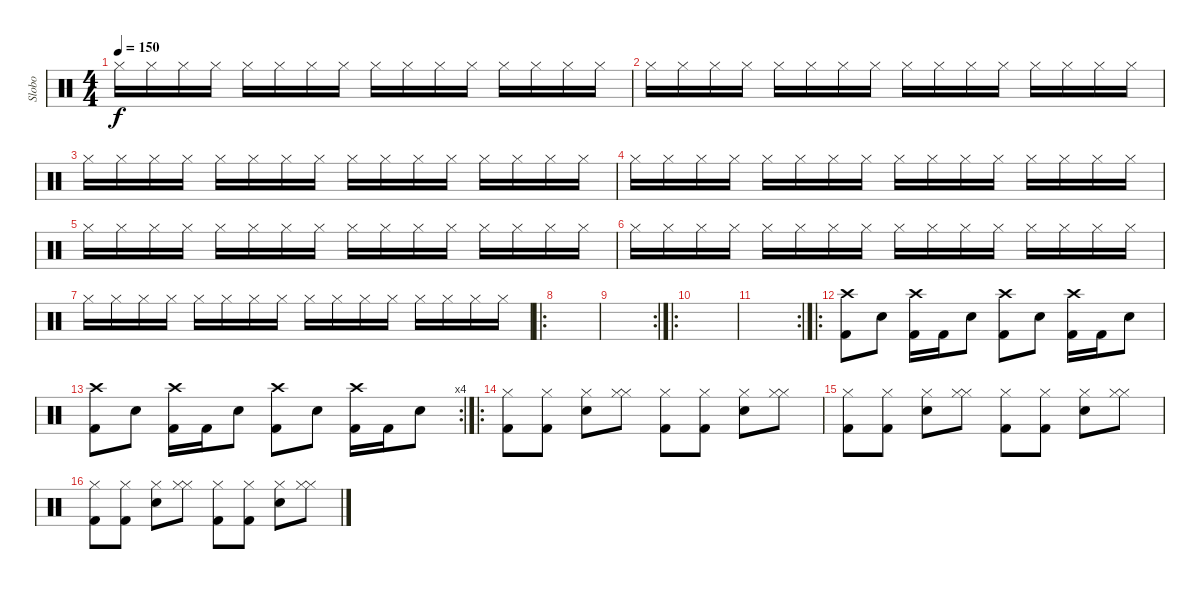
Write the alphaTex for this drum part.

\track ("Slobo" "Slobo") {instrument percussion}
\staff {score}
\articulation defaults
\ts (4 4)
\tempo 150
\clef neutral
\ks c "Hi-Hat (closed)".16{dy f} "Hi-Hat (closed)".16 "Hi-Hat (closed)".16 "Hi-Hat (closed)".16 "Hi-Hat (closed)".16 "Hi-Hat (closed)".16 "Hi-Hat (closed)".16 "Hi-Hat (closed)".16 "Hi-Hat (closed)".16 "Hi-Hat (closed)".16 "Hi-Hat (closed)".16 "Hi-Hat (closed)".16 "Hi-Hat (closed)".16 "Hi-Hat (closed)".16 "Hi-Hat (closed)".16 "Hi-Hat (closed)".16
|
"Hi-Hat (closed)".16 "Hi-Hat (closed)".16 "Hi-Hat (closed)".16 "Hi-Hat (closed)".16 "Hi-Hat (closed)".16 "Hi-Hat (closed)".16 "Hi-Hat (closed)".16 "Hi-Hat (closed)".16 "Hi-Hat (closed)".16 "Hi-Hat (closed)".16 "Hi-Hat (closed)".16 "Hi-Hat (closed)".16 "Hi-Hat (closed)".16 "Hi-Hat (closed)".16 "Hi-Hat (closed)".16 "Hi-Hat (closed)".16 |
"Hi-Hat (closed)".16 "Hi-Hat (closed)".16 "Hi-Hat (closed)".16 "Hi-Hat (closed)".16 "Hi-Hat (closed)".16 "Hi-Hat (closed)".16 "Hi-Hat (closed)".16 "Hi-Hat (closed)".16 "Hi-Hat (closed)".16 "Hi-Hat (closed)".16 "Hi-Hat (closed)".16 "Hi-Hat (closed)".16 "Hi-Hat (closed)".16 "Hi-Hat (closed)".16 "Hi-Hat (closed)".16 "Hi-Hat (closed)".16 |
"Hi-Hat (closed)".16 "Hi-Hat (closed)".16 "Hi-Hat (closed)".16 "Hi-Hat (closed)".16 "Hi-Hat (closed)".16 "Hi-Hat (closed)".16 "Hi-Hat (closed)".16 "Hi-Hat (closed)".16 "Hi-Hat (closed)".16 "Hi-Hat (closed)".16 "Hi-Hat (closed)".16 "Hi-Hat (closed)".16 "Hi-Hat (closed)".16 "Hi-Hat (closed)".16 "Hi-Hat (closed)".16 "Hi-Hat (closed)".16 |
"Hi-Hat (closed)".16 "Hi-Hat (closed)".16 "Hi-Hat (closed)".16 "Hi-Hat (closed)".16 "Hi-Hat (closed)".16 "Hi-Hat (closed)".16 "Hi-Hat (closed)".16 "Hi-Hat (closed)".16 "Hi-Hat (closed)".16 "Hi-Hat (closed)".16 "Hi-Hat (closed)".16 "Hi-Hat (closed)".16 "Hi-Hat (closed)".16 "Hi-Hat (closed)".16 "Hi-Hat (closed)".16 "Hi-Hat (closed)".16 |
"Hi-Hat (closed)".16 "Hi-Hat (closed)".16 "Hi-Hat (closed)".16 "Hi-Hat (closed)".16 "Hi-Hat (closed)".16 "Hi-Hat (closed)".16 "Hi-Hat (closed)".16 "Hi-Hat (closed)".16 "Hi-Hat (closed)".16 "Hi-Hat (closed)".16 "Hi-Hat (closed)".16 "Hi-Hat (closed)".16 "Hi-Hat (closed)".16 "Hi-Hat (closed)".16 "Hi-Hat (closed)".16 "Hi-Hat (closed)".16 |
"Hi-Hat (closed)".16 "Hi-Hat (closed)".16 "Hi-Hat (closed)".16 "Hi-Hat (closed)".16 "Hi-Hat (closed)".16 "Hi-Hat (closed)".16 "Hi-Hat (closed)".16 "Hi-Hat (closed)".16 "Hi-Hat (closed)".16 "Hi-Hat (closed)".16 "Hi-Hat (closed)".16 "Hi-Hat (closed)".16 "Hi-Hat (closed)".16 "Hi-Hat (closed)".16 "Hi-Hat (closed)".16 "Hi-Hat (closed)".16 |
\ro
|
\rc 2
|
\ro
|
\rc 2
|
\ro
("Crash high (hit)" "Kick (hit) 2").8 "Snare (hit) 2".8 ("Crash high (hit)" "Kick (hit) 2").16 "Kick (hit) 2".16 "Snare (hit) 2".8 ("Crash high (hit)" "Kick (hit) 2").8 "Snare (hit) 2".8 ("Crash high (hit)" "Kick (hit) 2").16 "Kick (hit) 2".16 "Snare (hit) 2".8 |
\rc 4
("Crash high (hit)" "Kick (hit) 2").8 "Snare (hit) 2".8 ("Crash high (hit)" "Kick (hit) 2").16 "Kick (hit) 2".16 "Snare (hit) 2".8 ("Crash high (hit)" "Kick (hit) 2").8 "Snare (hit) 2".8 ("Crash high (hit)" "Kick (hit) 2").16 "Kick (hit) 2".16 "Snare (hit) 2".8 |
\ro
("Hi-Hat (closed)" "Kick (hit) 2").8 ("Hi-Hat (closed)" "Kick (hit) 2").8 ("Hi-Hat (closed)" "Snare (hit) 2").8 ("Hi-Hat (closed)" "Hi-Hat (closed)").8 ("Hi-Hat (closed)" "Kick (hit) 2").8 ("Hi-Hat (closed)" "Kick (hit) 2").8 ("Hi-Hat (closed)" "Snare (hit) 2").8 ("Hi-Hat (closed)" "Hi-Hat (closed)").8 |
("Hi-Hat (closed)" "Kick (hit) 2").8 ("Hi-Hat (closed)" "Kick (hit) 2").8 ("Hi-Hat (closed)" "Snare (hit) 2").8 ("Hi-Hat (closed)" "Hi-Hat (closed)").8 ("Hi-Hat (closed)" "Kick (hit) 2").8 ("Hi-Hat (closed)" "Kick (hit) 2").8 ("Hi-Hat (closed)" "Snare (hit) 2").8 ("Hi-Hat (closed)" "Hi-Hat (closed)").8 |
("Hi-Hat (closed)" "Kick (hit) 2").8 ("Hi-Hat (closed)" "Kick (hit) 2").8 ("Hi-Hat (closed)" "Snare (hit) 2").8 ("Hi-Hat (closed)" "Hi-Hat (closed)").8 ("Hi-Hat (closed)" "Kick (hit) 2").8 ("Hi-Hat (closed)" "Kick (hit) 2").8 ("Hi-Hat (closed)" "Snare (hit) 2").8 ("Hi-Hat (closed)" "Hi-Hat (closed)").8
